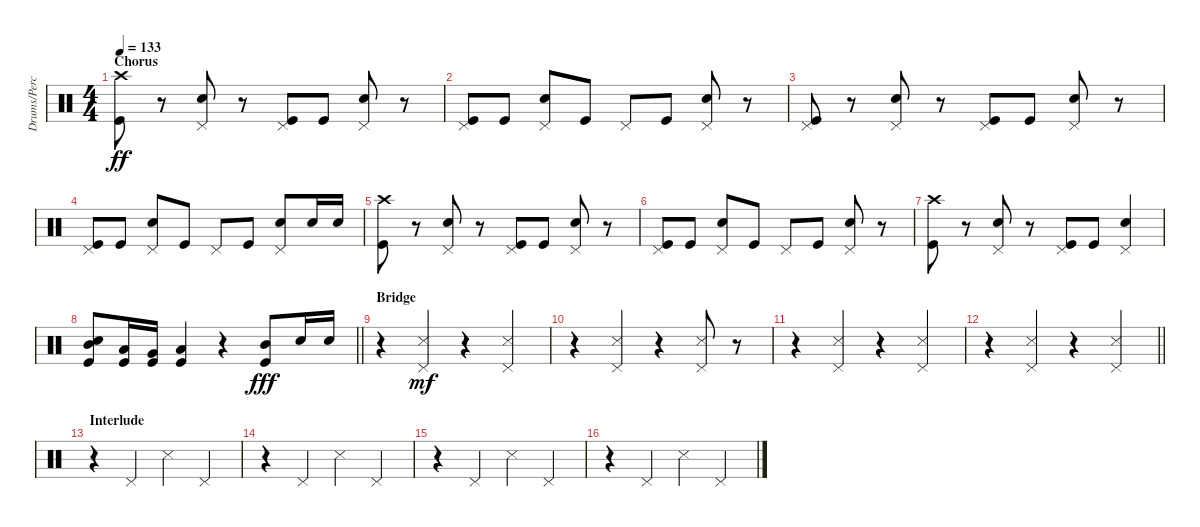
\track ("Drums/Percussion" "Drums/Perc") {instrument percussion}
\staff {score}
\articulation defaults
\ts (4 4)
\section ("" "Chorus")
\tempo 133
\clef neutral
\ks c
("Crash high (hit)" "Kick (hit)").8{dy ff} r.8 ("Pedal Hi-Hat (hit)" "Snare (hit) 2").8 r.8 ("Pedal Hi-Hat (hit)" "Kick (hit)").8 "Kick (hit)".8 ("Pedal Hi-Hat (hit)" "Snare (hit) 2").8 r.8 |
("Pedal Hi-Hat (hit)" "Kick (hit)").8 "Kick (hit)".8 ("Pedal Hi-Hat (hit)" "Snare (hit) 2").8 "Kick (hit)".8 "Pedal Hi-Hat (hit)".8 "Kick (hit)".8 ("Pedal Hi-Hat (hit)" "Snare (hit) 2").8 r.8 |
("Pedal Hi-Hat (hit)" "Kick (hit)").8 r.8 ("Pedal Hi-Hat (hit)" "Snare (hit) 2").8 r.8 ("Pedal Hi-Hat (hit)" "Kick (hit)").8 "Kick (hit)".8 ("Pedal Hi-Hat (hit)" "Snare (hit) 2").8 r.8 |
("Pedal Hi-Hat (hit)" "Kick (hit)").8 "Kick (hit)".8 ("Pedal Hi-Hat (hit)" "Snare (hit) 2").8 "Kick (hit)".8 "Pedal Hi-Hat (hit)".8 "Kick (hit)".8 ("Pedal Hi-Hat (hit)" "Snare (hit) 2").8 "Snare (hit) 2".16 "Snare (hit) 2".16 |
("Crash high (hit)" "Kick (hit)").8 r.8 ("Pedal Hi-Hat (hit)" "Snare (hit) 2").8 r.8 ("Pedal Hi-Hat (hit)" "Kick (hit)").8 "Kick (hit)".8 ("Pedal Hi-Hat (hit)" "Snare (hit) 2").8 r.8 |
("Pedal Hi-Hat (hit)" "Kick (hit)").8 "Kick (hit)".8 ("Pedal Hi-Hat (hit)" "Snare (hit) 2").8 "Kick (hit)".8 "Pedal Hi-Hat (hit)".8 "Kick (hit)".8 ("Pedal Hi-Hat (hit)" "Snare (hit) 2").8 r.8 |
("Crash high (hit)" "Kick (hit)").8 r.8 ("Pedal Hi-Hat (hit)" "Snare (hit) 2").8 r.8 ("Pedal Hi-Hat (hit)" "Kick (hit)").8 "Kick (hit)".8 ("Pedal Hi-Hat (hit)" "Snare (hit) 2").4 |
\barLineRight lightlight
("Snare (hit) 2" "Mid Tom (hit)" "Kick (hit)").8 ("Low Tom (hit)" "Kick (hit)").16 ("Very Low Tom (hit)" "Kick (hit)").16 ("Low Floor Tom (hit)" "Kick (hit)").4 r.4 ("Mid Tom (hit)" "Kick (hit)").8{dy fff} "Snare (hit) 2".16 "Snare (hit) 2".16 |
\section ("" "Bridge")
r.4 ("Pedal Hi-Hat (hit)" "Snare (side stick) 3").4{dy mf} r.4 ("Pedal Hi-Hat (hit)" "Snare (side stick) 3").4 |
r.4 ("Pedal Hi-Hat (hit)" "Snare (side stick) 3").4 r.4 ("Pedal Hi-Hat (hit)" "Snare (side stick) 3").8 r.8 |
r.4 ("Pedal Hi-Hat (hit)" "Snare (side stick) 3").4 r.4 ("Pedal Hi-Hat (hit)" "Snare (side stick) 3").4 |
\barLineRight lightlight
r.4 ("Pedal Hi-Hat (hit)" "Snare (side stick) 3").4 r.4 ("Pedal Hi-Hat (hit)" "Snare (side stick) 3").4 |
\section ("" "Interlude")
r.4 "Pedal Hi-Hat (hit)".4 "Snare (side stick) 3".4 "Pedal Hi-Hat (hit)".4 |
r.4 "Pedal Hi-Hat (hit)".4 "Snare (side stick) 3".4 "Pedal Hi-Hat (hit)".4 |
r.4 "Pedal Hi-Hat (hit)".4 "Snare (side stick) 3".4 "Pedal Hi-Hat (hit)".4 |
r.4 "Pedal Hi-Hat (hit)".4 "Snare (side stick) 3".4 "Pedal Hi-Hat (hit)".4
